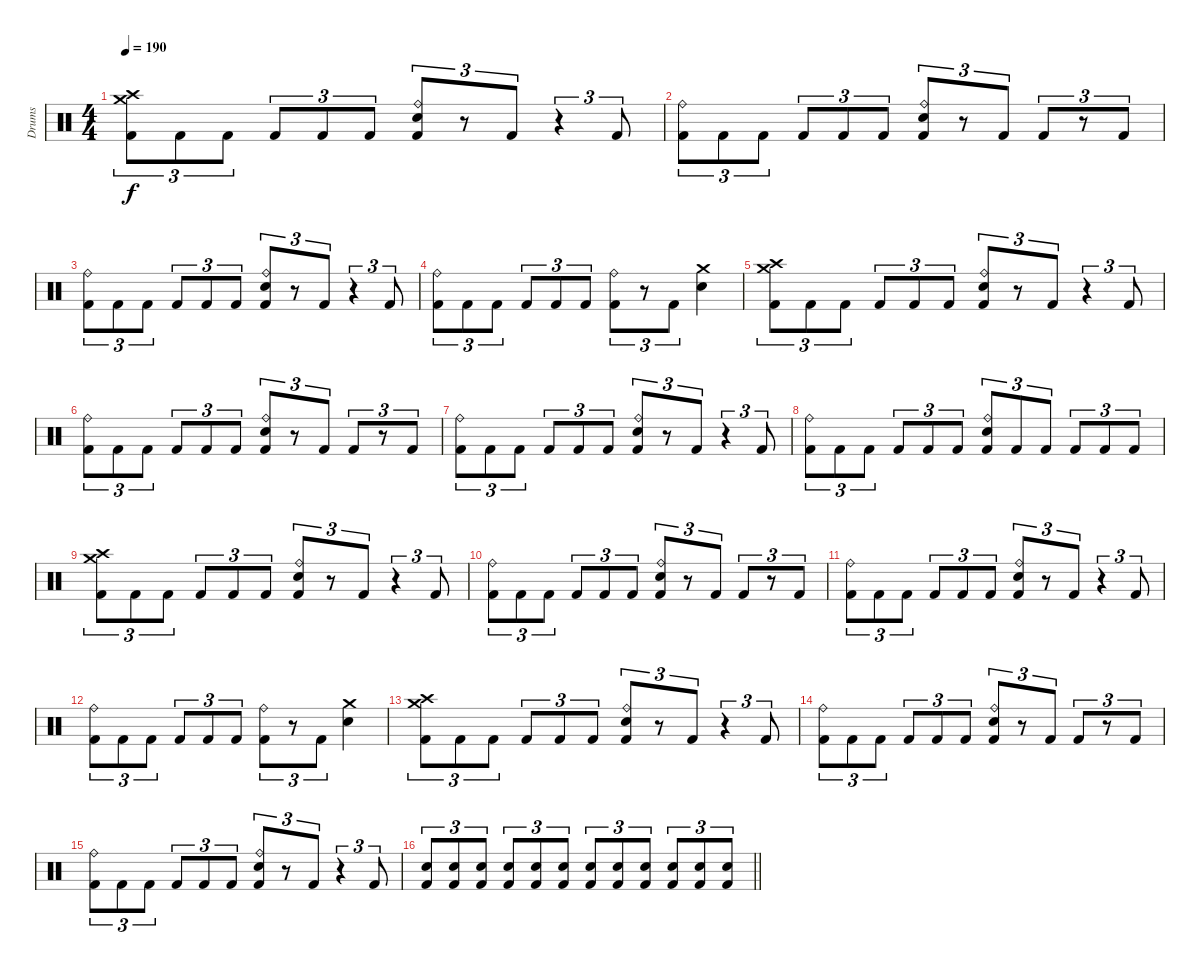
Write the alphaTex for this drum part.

\track ("Drums" "Drums") {instrument percussion}
\staff {score}
\articulation defaults
\ts (4 4)
\tempo 190
\clef neutral
\ks c
("Crash high (hit)" "Crash medium (hit)" "Kick (hit) 2").8{tu (3 2) dy f} "Kick (hit) 2".8{tu (3 2)} "Kick (hit) 2".8{tu (3 2)} "Kick (hit) 2".8{tu (3 2)} "Kick (hit) 2".8{tu (3 2)} "Kick (hit) 2".8{tu (3 2)} ("Ride (bell)" "Electric Snare (hit)" "Kick (hit) 2").8{tu (3 2)} r.8{tu (3 2)} "Kick (hit) 2".8{tu (3 2)} r.4{tu (3 2)} "Kick (hit) 2".8{tu (3 2)} |
("Ride (bell)" "Kick (hit) 2").8{tu (3 2)} "Kick (hit) 2".8{tu (3 2)} "Kick (hit) 2".8{tu (3 2)} "Kick (hit) 2".8{tu (3 2)} "Kick (hit) 2".8{tu (3 2)} "Kick (hit) 2".8{tu (3 2)} ("Ride (bell)" "Electric Snare (hit)" "Kick (hit) 2").8{tu (3 2)} r.8{tu (3 2)} "Kick (hit) 2".8{tu (3 2)} "Kick (hit) 2".8{tu (3 2)} r.8{tu (3 2)} "Kick (hit) 2".8{tu (3 2)} |
("Ride (bell)" "Kick (hit) 2").8{tu (3 2)} "Kick (hit) 2".8{tu (3 2)} "Kick (hit) 2".8{tu (3 2)} "Kick (hit) 2".8{tu (3 2)} "Kick (hit) 2".8{tu (3 2)} "Kick (hit) 2".8{tu (3 2)} ("Ride (bell)" "Electric Snare (hit)" "Kick (hit) 2").8{tu (3 2)} r.8{tu (3 2)} "Kick (hit) 2".8{tu (3 2)} r.4{tu (3 2)} "Kick (hit) 2".8{tu (3 2)} |
("Ride (bell)" "Kick (hit) 2").8{tu (3 2)} "Kick (hit) 2".8{tu (3 2)} "Kick (hit) 2".8{tu (3 2)} "Kick (hit) 2".8{tu (3 2)} "Kick (hit) 2".8{tu (3 2)} "Kick (hit) 2".8{tu (3 2)} ("Ride (bell)" "Kick (hit) 2").8{tu (3 2)} r.8{tu (3 2)} "Kick (hit) 2".8{tu (3 2)} ("Crash medium (hit)" "Electric Snare (hit)").4 |
("Crash high (hit)" "Crash medium (hit)" "Kick (hit) 2").8{tu (3 2)} "Kick (hit) 2".8{tu (3 2)} "Kick (hit) 2".8{tu (3 2)} "Kick (hit) 2".8{tu (3 2)} "Kick (hit) 2".8{tu (3 2)} "Kick (hit) 2".8{tu (3 2)} ("Ride (bell)" "Electric Snare (hit)" "Kick (hit) 2").8{tu (3 2)} r.8{tu (3 2)} "Kick (hit) 2".8{tu (3 2)} r.4{tu (3 2)} "Kick (hit) 2".8{tu (3 2)} |
("Ride (bell)" "Kick (hit) 2").8{tu (3 2)} "Kick (hit) 2".8{tu (3 2)} "Kick (hit) 2".8{tu (3 2)} "Kick (hit) 2".8{tu (3 2)} "Kick (hit) 2".8{tu (3 2)} "Kick (hit) 2".8{tu (3 2)} ("Ride (bell)" "Electric Snare (hit)" "Kick (hit) 2").8{tu (3 2)} r.8{tu (3 2)} "Kick (hit) 2".8{tu (3 2)} "Kick (hit) 2".8{tu (3 2)} r.8{tu (3 2)} "Kick (hit) 2".8{tu (3 2)} |
("Ride (bell)" "Kick (hit) 2").8{tu (3 2)} "Kick (hit) 2".8{tu (3 2)} "Kick (hit) 2".8{tu (3 2)} "Kick (hit) 2".8{tu (3 2)} "Kick (hit) 2".8{tu (3 2)} "Kick (hit) 2".8{tu (3 2)} ("Ride (bell)" "Electric Snare (hit)" "Kick (hit) 2").8{tu (3 2)} r.8{tu (3 2)} "Kick (hit) 2".8{tu (3 2)} r.4{tu (3 2)} "Kick (hit) 2".8{tu (3 2)} |
("Ride (bell)" "Kick (hit) 2").8{tu (3 2)} "Kick (hit) 2".8{tu (3 2)} "Kick (hit) 2".8{tu (3 2)} "Kick (hit) 2".8{tu (3 2)} "Kick (hit) 2".8{tu (3 2)} "Kick (hit) 2".8{tu (3 2)} ("Ride (bell)" "Electric Snare (hit)" "Kick (hit) 2").8{tu (3 2)} "Kick (hit) 2".8{tu (3 2)} "Kick (hit) 2".8{tu (3 2)} "Kick (hit) 2".8{tu (3 2)} "Kick (hit) 2".8{tu (3 2)} "Kick (hit) 2".8{tu (3 2)} |
("Crash high (hit)" "Crash medium (hit)" "Kick (hit) 2").8{tu (3 2)} "Kick (hit) 2".8{tu (3 2)} "Kick (hit) 2".8{tu (3 2)} "Kick (hit) 2".8{tu (3 2)} "Kick (hit) 2".8{tu (3 2)} "Kick (hit) 2".8{tu (3 2)} ("Ride (bell)" "Electric Snare (hit)" "Kick (hit) 2").8{tu (3 2)} r.8{tu (3 2)} "Kick (hit) 2".8{tu (3 2)} r.4{tu (3 2)} "Kick (hit) 2".8{tu (3 2)} |
("Ride (bell)" "Kick (hit) 2").8{tu (3 2)} "Kick (hit) 2".8{tu (3 2)} "Kick (hit) 2".8{tu (3 2)} "Kick (hit) 2".8{tu (3 2)} "Kick (hit) 2".8{tu (3 2)} "Kick (hit) 2".8{tu (3 2)} ("Ride (bell)" "Electric Snare (hit)" "Kick (hit) 2").8{tu (3 2)} r.8{tu (3 2)} "Kick (hit) 2".8{tu (3 2)} "Kick (hit) 2".8{tu (3 2)} r.8{tu (3 2)} "Kick (hit) 2".8{tu (3 2)} |
("Ride (bell)" "Kick (hit) 2").8{tu (3 2)} "Kick (hit) 2".8{tu (3 2)} "Kick (hit) 2".8{tu (3 2)} "Kick (hit) 2".8{tu (3 2)} "Kick (hit) 2".8{tu (3 2)} "Kick (hit) 2".8{tu (3 2)} ("Ride (bell)" "Electric Snare (hit)" "Kick (hit) 2").8{tu (3 2)} r.8{tu (3 2)} "Kick (hit) 2".8{tu (3 2)} r.4{tu (3 2)} "Kick (hit) 2".8{tu (3 2)} |
("Ride (bell)" "Kick (hit) 2").8{tu (3 2)} "Kick (hit) 2".8{tu (3 2)} "Kick (hit) 2".8{tu (3 2)} "Kick (hit) 2".8{tu (3 2)} "Kick (hit) 2".8{tu (3 2)} "Kick (hit) 2".8{tu (3 2)} ("Ride (bell)" "Kick (hit) 2").8{tu (3 2)} r.8{tu (3 2)} "Kick (hit) 2".8{tu (3 2)} ("Crash medium (hit)" "Electric Snare (hit)").4 |
("Crash high (hit)" "Crash medium (hit)" "Kick (hit) 2").8{tu (3 2)} "Kick (hit) 2".8{tu (3 2)} "Kick (hit) 2".8{tu (3 2)} "Kick (hit) 2".8{tu (3 2)} "Kick (hit) 2".8{tu (3 2)} "Kick (hit) 2".8{tu (3 2)} ("Ride (bell)" "Electric Snare (hit)" "Kick (hit) 2").8{tu (3 2)} r.8{tu (3 2)} "Kick (hit) 2".8{tu (3 2)} r.4{tu (3 2)} "Kick (hit) 2".8{tu (3 2)} |
("Ride (bell)" "Kick (hit) 2").8{tu (3 2)} "Kick (hit) 2".8{tu (3 2)} "Kick (hit) 2".8{tu (3 2)} "Kick (hit) 2".8{tu (3 2)} "Kick (hit) 2".8{tu (3 2)} "Kick (hit) 2".8{tu (3 2)} ("Ride (bell)" "Electric Snare (hit)" "Kick (hit) 2").8{tu (3 2)} r.8{tu (3 2)} "Kick (hit) 2".8{tu (3 2)} "Kick (hit) 2".8{tu (3 2)} r.8{tu (3 2)} "Kick (hit) 2".8{tu (3 2)} |
("Ride (bell)" "Kick (hit) 2").8{tu (3 2)} "Kick (hit) 2".8{tu (3 2)} "Kick (hit) 2".8{tu (3 2)} "Kick (hit) 2".8{tu (3 2)} "Kick (hit) 2".8{tu (3 2)} "Kick (hit) 2".8{tu (3 2)} ("Ride (bell)" "Electric Snare (hit)" "Kick (hit) 2").8{tu (3 2)} r.8{tu (3 2)} "Kick (hit) 2".8{tu (3 2)} r.4{tu (3 2)} "Kick (hit) 2".8{tu (3 2)} |
\barLineRight lightlight
("Electric Snare (hit)" "Kick (hit) 2").8{tu (3 2)} ("Electric Snare (hit)" "Kick (hit) 2").8{tu (3 2)} ("Electric Snare (hit)" "Kick (hit) 2").8{tu (3 2)} ("Electric Snare (hit)" "Kick (hit) 2").8{tu (3 2)} ("Electric Snare (hit)" "Kick (hit) 2").8{tu (3 2)} ("Electric Snare (hit)" "Kick (hit) 2").8{tu (3 2)} ("Electric Snare (hit)" "Kick (hit) 2").8{tu (3 2)} ("Electric Snare (hit)" "Kick (hit) 2").8{tu (3 2)} ("Electric Snare (hit)" "Kick (hit) 2").8{tu (3 2)} ("Electric Snare (hit)" "Kick (hit) 2").8{tu (3 2)} ("Electric Snare (hit)" "Kick (hit) 2").8{tu (3 2)} ("Electric Snare (hit)" "Kick (hit) 2").8{tu (3 2)}
